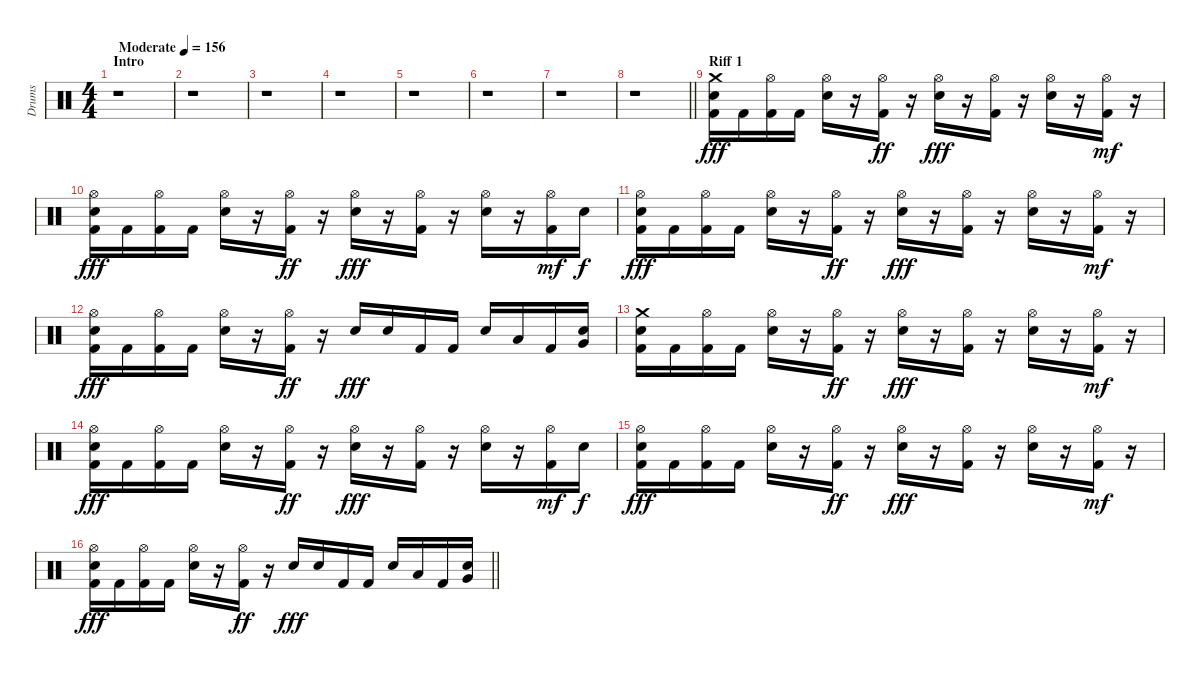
\track ("Drums" "Drums") {instrument percussion}
\staff {score}
\articulation defaults
\ts (4 4)
\section ("" "Intro")
\tempo (156 "Moderate")
\clef neutral
\ks c
r.1{dy fff} |
r.1 |
r.1 |
r.1 |
r.1 |
r.1 |
r.1 |
\barLineRight lightlight
r.1 |
\section ("" "Riff 1")
("Kick (hit) 2" "Snare (hit) 2" "Crash medium (hit)").16 "Kick (hit) 2".16 ("Kick (hit) 2" "Hi-Hat (open)").16 "Kick (hit) 2".16 ("Snare (hit) 2" "Hi-Hat (open)").16 r.16 ("Kick (hit) 2" "Hi-Hat (open)").16{dy ff} r.16 ("Snare (hit) 2" "Hi-Hat (open)").16{dy fff} r.16 ("Kick (hit) 2" "Hi-Hat (open)").16 r.16 ("Snare (hit) 2" "Hi-Hat (open)").16 r.16 ("Kick (hit) 2" "Hi-Hat (open)").16{dy mf} r.16 |
("Kick (hit) 2" "Snare (hit) 2" "Hi-Hat (open)").16{dy fff} "Kick (hit) 2".16 ("Kick (hit) 2" "Hi-Hat (open)").16 "Kick (hit) 2".16 ("Snare (hit) 2" "Hi-Hat (open)").16 r.16 ("Kick (hit) 2" "Hi-Hat (open)").16{dy ff} r.16 ("Snare (hit) 2" "Hi-Hat (open)").16{dy fff} r.16 ("Kick (hit) 2" "Hi-Hat (open)").16 r.16 ("Snare (hit) 2" "Hi-Hat (open)").16 r.16 ("Kick (hit) 2" "Hi-Hat (open)").16{dy mf} "Snare (hit) 2".16{dy f} |
("Kick (hit) 2" "Snare (hit) 2" "Hi-Hat (open)").16{dy fff} "Kick (hit) 2".16 ("Kick (hit) 2" "Hi-Hat (open)").16 "Kick (hit) 2".16 ("Snare (hit) 2" "Hi-Hat (open)").16 r.16 ("Kick (hit) 2" "Hi-Hat (open)").16{dy ff} r.16 ("Snare (hit) 2" "Hi-Hat (open)").16{dy fff} r.16 ("Kick (hit) 2" "Hi-Hat (open)").16 r.16 ("Snare (hit) 2" "Hi-Hat (open)").16 r.16 ("Kick (hit) 2" "Hi-Hat (open)").16{dy mf} r.16 |
("Kick (hit) 2" "Snare (hit) 2" "Hi-Hat (open)").16{dy fff} "Kick (hit) 2".16 ("Kick (hit) 2" "Hi-Hat (open)").16 "Kick (hit) 2".16 ("Snare (hit) 2" "Hi-Hat (open)").16 r.16 ("Kick (hit) 2" "Hi-Hat (open)").16{dy ff} r.16 "Snare (hit) 2".16{dy fff} "Snare (hit) 2".16 "Kick (hit) 2".16 "Kick (hit) 2".16 "Snare (hit) 2".16 "Low Tom (hit)".16 "Kick (hit) 2".16 ("Snare (hit) 2" "Very Low Tom (hit)").16 |
("Kick (hit) 2" "Snare (hit) 2" "Crash medium (hit)").16 "Kick (hit) 2".16 ("Kick (hit) 2" "Hi-Hat (open)").16 "Kick (hit) 2".16 ("Snare (hit) 2" "Hi-Hat (open)").16 r.16 ("Kick (hit) 2" "Hi-Hat (open)").16{dy ff} r.16 ("Snare (hit) 2" "Hi-Hat (open)").16{dy fff} r.16 ("Kick (hit) 2" "Hi-Hat (open)").16 r.16 ("Snare (hit) 2" "Hi-Hat (open)").16 r.16 ("Kick (hit) 2" "Hi-Hat (open)").16{dy mf} r.16 |
("Kick (hit) 2" "Snare (hit) 2" "Hi-Hat (open)").16{dy fff} "Kick (hit) 2".16 ("Kick (hit) 2" "Hi-Hat (open)").16 "Kick (hit) 2".16 ("Snare (hit) 2" "Hi-Hat (open)").16 r.16 ("Kick (hit) 2" "Hi-Hat (open)").16{dy ff} r.16 ("Snare (hit) 2" "Hi-Hat (open)").16{dy fff} r.16 ("Kick (hit) 2" "Hi-Hat (open)").16 r.16 ("Snare (hit) 2" "Hi-Hat (open)").16 r.16 ("Kick (hit) 2" "Hi-Hat (open)").16{dy mf} "Snare (hit) 2".16{dy f} |
("Kick (hit) 2" "Snare (hit) 2" "Hi-Hat (open)").16{dy fff} "Kick (hit) 2".16 ("Kick (hit) 2" "Hi-Hat (open)").16 "Kick (hit) 2".16 ("Snare (hit) 2" "Hi-Hat (open)").16 r.16 ("Kick (hit) 2" "Hi-Hat (open)").16{dy ff} r.16 ("Snare (hit) 2" "Hi-Hat (open)").16{dy fff} r.16 ("Kick (hit) 2" "Hi-Hat (open)").16 r.16 ("Snare (hit) 2" "Hi-Hat (open)").16 r.16 ("Kick (hit) 2" "Hi-Hat (open)").16{dy mf} r.16 |
\barLineRight lightlight
("Kick (hit) 2" "Snare (hit) 2" "Hi-Hat (open)").16{dy fff} "Kick (hit) 2".16 ("Kick (hit) 2" "Hi-Hat (open)").16 "Kick (hit) 2".16 ("Snare (hit) 2" "Hi-Hat (open)").16 r.16 ("Kick (hit) 2" "Hi-Hat (open)").16{dy ff} r.16 "Snare (hit) 2".16{dy fff} "Snare (hit) 2".16 "Kick (hit) 2".16 "Kick (hit) 2".16 "Snare (hit) 2".16 "Low Tom (hit)".16 "Kick (hit) 2".16 ("Snare (hit) 2" "Very Low Tom (hit)").16
